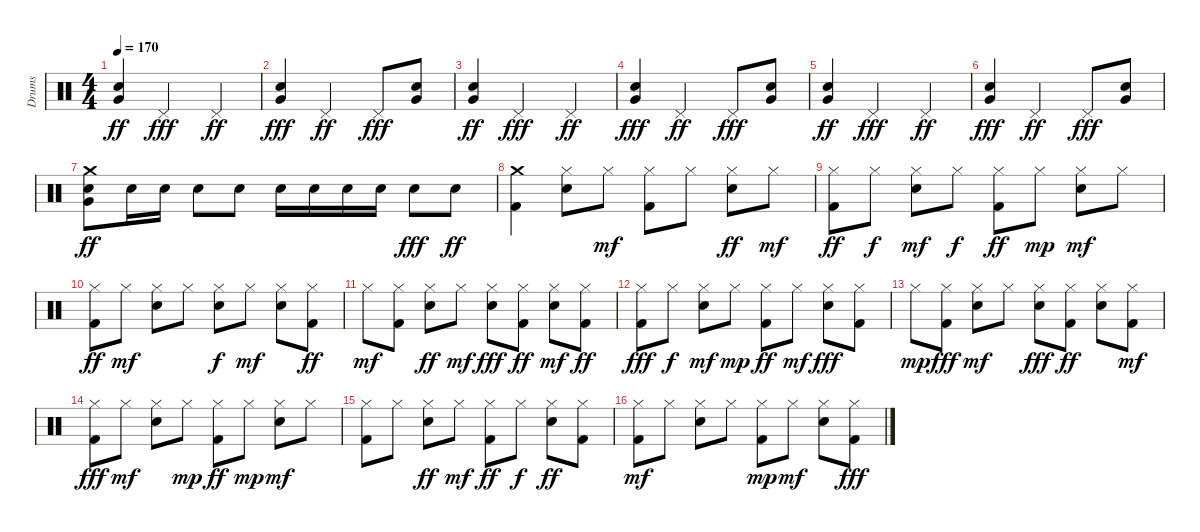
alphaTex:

\track ("Drums" "Drums") {instrument percussion}
\staff {score}
\articulation defaults
\ts (4 4)
\tempo 170
\clef neutral
\ks c
("Very Low Tom (hit)" "Snare (hit) 2").4{dy ff} "Pedal Hi-Hat (hit)".2{dy fff} "Pedal Hi-Hat (hit)".4{dy ff} |
("Snare (hit) 2" "Very Low Tom (hit)").4{dy fff} "Pedal Hi-Hat (hit)".2{dy ff} "Pedal Hi-Hat (hit)".8{dy fff} ("Snare (hit) 2" "Very Low Tom (hit)").8 |
("Very Low Tom (hit)" "Snare (hit) 2").4{dy ff} "Pedal Hi-Hat (hit)".2{dy fff} "Pedal Hi-Hat (hit)".4{dy ff} |
("Snare (hit) 2" "Very Low Tom (hit)").4{dy fff} "Pedal Hi-Hat (hit)".2{dy ff} "Pedal Hi-Hat (hit)".8{dy fff} ("Snare (hit) 2" "Very Low Tom (hit)").8 |
("Very Low Tom (hit)" "Snare (hit) 2").4{dy ff} "Pedal Hi-Hat (hit)".2{dy fff} "Pedal Hi-Hat (hit)".4{dy ff} |
("Snare (hit) 2" "Very Low Tom (hit)").4{dy fff} "Pedal Hi-Hat (hit)".2{dy ff} "Pedal Hi-Hat (hit)".8{dy fff} ("Snare (hit) 2" "Very Low Tom (hit)").8 |
("Snare (hit) 2" "Very Low Tom (hit)" "Crash medium (hit)").8{dy ff} "Snare (hit) 2".16 "Snare (hit) 2".16 "Snare (hit) 2".8 "Snare (hit) 2".8 "Snare (hit) 2".16 "Snare (hit) 2".16 "Snare (hit) 2".16 "Snare (hit) 2".16 "Snare (hit) 2".8{dy fff} "Snare (hit) 2".8{dy ff} |
("Crash medium (hit)" "Kick (hit) 2").4 ("Hi-Hat (closed)" "Snare (hit) 2").8 "Hi-Hat (closed)".8{dy mf} ("Hi-Hat (closed)" "Kick (hit) 2").8 "Hi-Hat (closed)".8 ("Hi-Hat (closed)" "Snare (hit) 2").8{dy ff} "Hi-Hat (closed)".8{dy mf} |
("Hi-Hat (closed)" "Kick (hit) 2").8{dy ff} "Hi-Hat (closed)".8{dy f} ("Hi-Hat (closed)" "Snare (hit) 2").8{dy mf} "Hi-Hat (closed)".8{dy f} ("Hi-Hat (closed)" "Kick (hit) 2").8{dy ff} "Hi-Hat (closed)".8{dy mp} ("Hi-Hat (closed)" "Snare (hit) 2").8{dy mf} "Hi-Hat (closed)".8 |
("Hi-Hat (closed)" "Kick (hit) 2").8{dy ff} "Hi-Hat (closed)".8{dy mf} ("Hi-Hat (closed)" "Snare (hit) 2").8 "Hi-Hat (closed)".8 ("Hi-Hat (closed)" "Snare (hit) 2").8{dy f} "Hi-Hat (closed)".8{dy mf} ("Hi-Hat (closed)" "Snare (hit) 2").8 ("Hi-Hat (closed)" "Kick (hit) 2").8{dy ff} |
"Hi-Hat (closed)".8{dy mf} ("Hi-Hat (closed)" "Kick (hit) 2").8 ("Hi-Hat (closed)" "Snare (hit) 2").8{dy ff} "Hi-Hat (closed)".8{dy mf} ("Hi-Hat (closed)" "Snare (hit) 2").8{dy fff} ("Hi-Hat (closed)" "Kick (hit) 2").8{dy ff} ("Hi-Hat (closed)" "Snare (hit) 2").8{dy mf} ("Hi-Hat (closed)" "Kick (hit) 2").8{dy ff} |
("Hi-Hat (closed)" "Kick (hit) 2").8{dy fff} "Hi-Hat (closed)".8{dy f} ("Hi-Hat (closed)" "Snare (hit) 2").8{dy mf} "Hi-Hat (closed)".8{dy mp} ("Hi-Hat (closed)" "Kick (hit) 2").8{dy ff} "Hi-Hat (closed)".8{dy mf} ("Hi-Hat (closed)" "Snare (hit) 2").8{dy fff} ("Hi-Hat (closed)" "Kick (hit) 2").8 |
"Hi-Hat (closed)".8{dy mp} ("Hi-Hat (closed)" "Kick (hit) 2").8{dy fff} ("Hi-Hat (closed)" "Snare (hit) 2").8{dy mf} "Hi-Hat (closed)".8 ("Hi-Hat (closed)" "Snare (hit) 2").8{dy fff} ("Hi-Hat (closed)" "Kick (hit) 2").8{dy ff} ("Hi-Hat (closed)" "Snare (hit) 2").8 ("Hi-Hat (closed)" "Kick (hit) 2").8{dy mf} |
("Hi-Hat (closed)" "Kick (hit) 2").8{dy fff} "Hi-Hat (closed)".8{dy mf} ("Hi-Hat (closed)" "Snare (hit) 2").8 "Hi-Hat (closed)".8{dy mp} ("Hi-Hat (closed)" "Kick (hit) 2").8{dy ff} "Hi-Hat (closed)".8{dy mp} ("Hi-Hat (closed)" "Snare (hit) 2").8{dy mf} "Hi-Hat (closed)".8 |
("Hi-Hat (closed)" "Kick (hit) 2").8 "Hi-Hat (closed)".8 ("Hi-Hat (closed)" "Snare (hit) 2").8{dy ff} "Hi-Hat (closed)".8{dy mf} ("Hi-Hat (closed)" "Kick (hit) 2").8{dy ff} "Hi-Hat (closed)".8{dy f} ("Hi-Hat (closed)" "Snare (hit) 2").8{dy ff} ("Hi-Hat (closed)" "Kick (hit) 2").8 |
("Hi-Hat (closed)" "Kick (hit) 2").8{dy mf} "Hi-Hat (closed)".8 ("Hi-Hat (closed)" "Snare (hit) 2").8 "Hi-Hat (closed)".8 ("Hi-Hat (closed)" "Kick (hit) 2").8{dy mp} "Hi-Hat (closed)".8{dy mf} ("Hi-Hat (closed)" "Snare (hit) 2").8 ("Hi-Hat (closed)" "Kick (hit) 2").8{dy fff}
